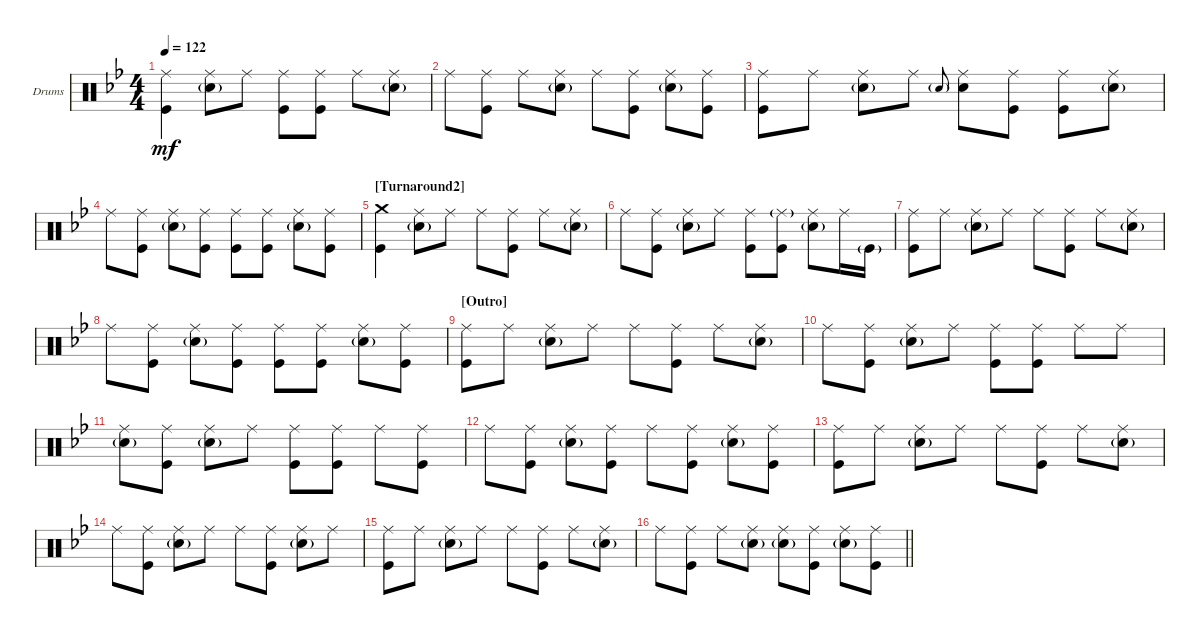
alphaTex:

\defaultSystemsLayout 4
\bracketExtendMode groupsimilarinstruments
\firstSystemTrackNameOrientation horizontal
\otherSystemsTrackNameOrientation horizontal
\track ("Drumkit" "Drums") {instrument percussion}
\staff {score}
\articulation defaults
\ts (4 4)
\tempo 122
\clef neutral
\ks bb
("Ride (middle)" "Kick (hit)").4{dy mf} ("Ride (middle)" "Snare (hit) 2"{g}).8 "Ride (middle)".8 ("Ride (middle)" "Kick (hit)").8 ("Kick (hit)" "Ride (middle)").8 "Ride (middle)".8 ("Ride (middle)" "Snare (hit) 2"{g}).8 |
"Ride (middle)".8 ("Ride (middle)" "Kick (hit)").8 "Ride (middle)".8 ("Ride (middle)" "Snare (hit) 2"{g}).8 "Ride (middle)".8 ("Kick (hit)" "Ride (middle)").8 ("Snare (hit) 2"{g} "Ride (middle)").8 ("Ride (middle)" "Kick (hit)").8 |
("Ride (middle)" "Kick (hit)").8 "Ride (middle)".8 ("Ride (middle)" "Snare (hit) 2"{g}).8 "Ride (middle)".8 "Snare (hit) 2"{g}.8{gr onbeat} ("Ride (middle)" "Snare (hit) 2").8 ("Kick (hit)" "Ride (middle)").8 ("Ride (middle)" "Kick (hit)").8 ("Ride (middle)" "Snare (hit) 2"{g}).8 |
"Ride (middle)".8 ("Ride (middle)" "Kick (hit)").8 ("Ride (middle)" "Snare (hit) 2"{g}).8 ("Ride (middle)" "Kick (hit)").8 ("Ride (middle)" "Kick (hit)").8 ("Kick (hit)" "Ride (middle)").8 ("Snare (hit) 2"{g} "Ride (middle)").8 ("Ride (middle)" "Kick (hit)").8 |
\section ("" "[Turnaround2]")
("Kick (hit)" "Crash medium (hit)").4 ("Ride (middle)" "Snare (hit) 2"{g}).8 "Ride (middle)".8 "Ride (middle)".8 ("Kick (hit)" "Ride (middle)").8 "Ride (middle)".8 ("Ride (middle)" "Snare (hit) 2"{g}).8 |
"Ride (middle)".8 ("Ride (middle)" "Kick (hit)").8 ("Ride (middle)" "Snare (hit) 2"{g}).8 "Ride (middle)".8 ("Ride (middle)" "Kick (hit)").8 ("Kick (hit)" "Ride (middle)"{g}).8 ("Snare (hit) 2"{g} "Ride (middle)").8 "Ride (middle)".16 "Kick (hit)"{g}.16 |
("Kick (hit)" "Ride (middle)").8 "Ride (middle)".8 ("Ride (middle)" "Snare (hit) 2"{g}).8 "Ride (middle)".8 "Ride (middle)".8 ("Kick (hit)" "Ride (middle)").8 "Ride (middle)".8 ("Ride (middle)" "Snare (hit) 2"{g}).8 |
"Ride (middle)".8 ("Ride (middle)" "Kick (hit)").8 ("Ride (middle)" "Snare (hit) 2"{g}).8 ("Ride (middle)" "Kick (hit)").8 ("Ride (middle)" "Kick (hit)").8 ("Kick (hit)" "Ride (middle)").8 ("Snare (hit) 2"{g} "Ride (middle)").8 ("Ride (middle)" "Kick (hit)").8 |
\section ("" "[Outro]")
("Kick (hit)" "Ride (middle)").8 "Ride (middle)".8 ("Ride (middle)" "Snare (hit) 2"{g}).8 "Ride (middle)".8 "Ride (middle)".8 ("Kick (hit)" "Ride (middle)").8 "Ride (middle)".8 ("Ride (middle)" "Snare (hit) 2"{g}).8 |
"Ride (middle)".8 ("Ride (middle)" "Kick (hit)").8 ("Ride (middle)" "Snare (hit) 2"{g}).8 "Ride (middle)".8 ("Ride (middle)" "Kick (hit)").8 ("Kick (hit)" "Ride (middle)").8 "Ride (middle)".8 "Ride (middle)".8 |
("Ride (middle)" "Snare (hit) 2"{g}).8 ("Ride (middle)" "Kick (hit)").8 ("Ride (middle)" "Snare (hit) 2"{g}).8 "Ride (middle)".8 ("Ride (middle)" "Kick (hit)").8 ("Kick (hit)" "Ride (middle)").8 "Ride (middle)".8 ("Ride (middle)" "Kick (hit)").8 |
"Ride (middle)".8 ("Ride (middle)" "Kick (hit)").8 ("Ride (middle)" "Snare (hit) 2"{g}).8 ("Ride (middle)" "Kick (hit)").8 "Ride (middle)".8 ("Kick (hit)" "Ride (middle)").8 ("Ride (middle)" "Snare (hit) 2"{g}).8 ("Ride (middle)" "Kick (hit)").8 |
("Kick (hit)" "Ride (middle)").8 "Ride (middle)".8 ("Ride (middle)" "Snare (hit) 2"{g}).8 "Ride (middle)".8 "Ride (middle)".8 ("Kick (hit)" "Ride (middle)").8 "Ride (middle)".8 ("Ride (middle)" "Snare (hit) 2"{g}).8 |
"Ride (middle)".8 ("Ride (middle)" "Kick (hit)").8 ("Ride (middle)" "Snare (hit) 2"{g}).8 "Ride (middle)".8 "Ride (middle)".8 ("Kick (hit)" "Ride (middle)").8 ("Ride (middle)" "Snare (hit) 2"{g}).8 "Ride (middle)".8 |
("Kick (hit)" "Ride (middle)").8 "Ride (middle)".8 ("Ride (middle)" "Snare (hit) 2"{g}).8 "Ride (middle)".8 "Ride (middle)".8 ("Kick (hit)" "Ride (middle)").8 "Ride (middle)".8 ("Ride (middle)" "Snare (hit) 2"{g}).8 |
\barLineRight lightlight "Ride (middle)".8
("Ride (middle)" "Kick (hit)").8 "Ride (middle)".8 ("Ride (middle)" "Snare (hit) 2"{g}).8 ("Ride (middle)" "Snare (hit) 2"{g}).8 ("Kick (hit)" "Ride (middle)").8 ("Ride (middle)" "Snare (hit) 2"{g}).8 ("Ride (middle)" "Kick (hit)").8
